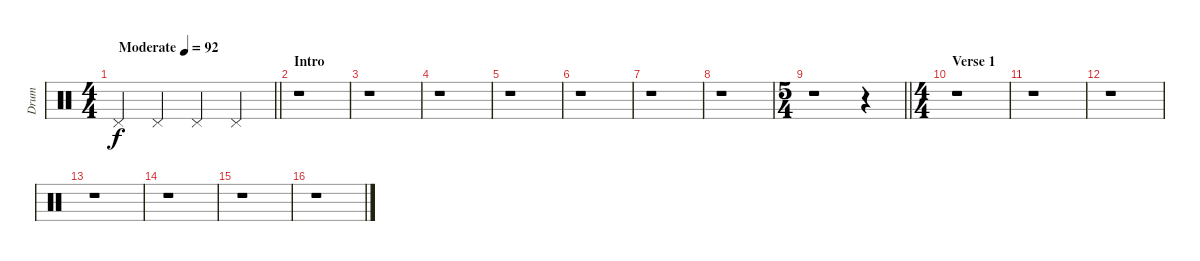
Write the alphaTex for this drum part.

\track ("Drum" "Drum") {instrument percussion}
\staff {score}
\articulation defaults
\ts (4 4)
\tempo (92 "Moderate")
\clef neutral
\barLineRight lightlight
\ks c "Pedal Hi-Hat (hit)".4{dy f} "Pedal Hi-Hat (hit)".4 "Pedal Hi-Hat (hit)".4 "Pedal Hi-Hat (hit)".4
|
\section ("" "Intro")
r.1 |
r.1 |
r.1 |
r.1 |
r.1 |
r.1 |
r.1 |
\ts (5 4)
\barLineRight lightlight
r.1 r.4 |
\ts (4 4)
\section ("" "Verse 1")
r.1 |
r.1 |
r.1 |
r.1 |
r.1 |
r.1 |
r.1
